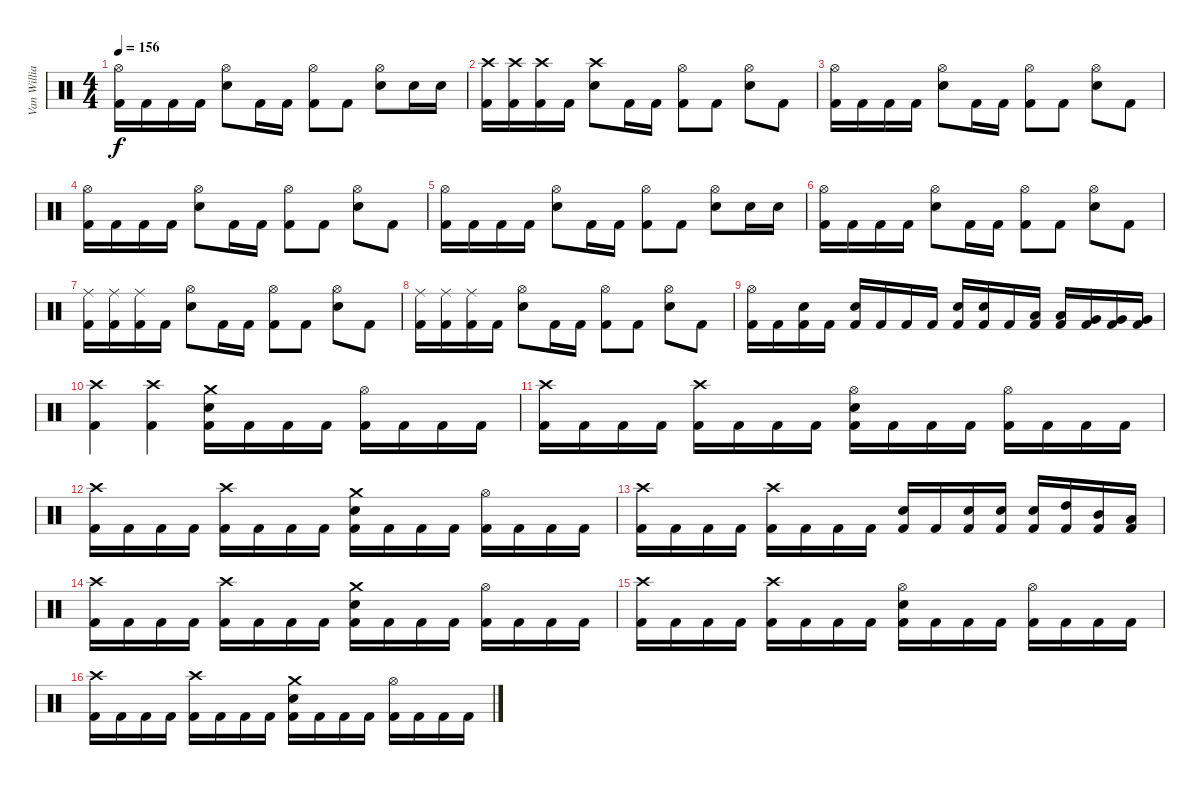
\track ("Van Williams" "Van Willia") {instrument percussion}
\staff {score}
\articulation defaults
\ts (4 4)
\tempo 156
\clef neutral
\ks c
("Hi-Hat (open)" "Kick (hit) 2").16{dy f} "Kick (hit) 2".16 "Kick (hit) 2".16 "Kick (hit) 2".16 ("Hi-Hat (open)" "Electric Snare (hit)").8 "Kick (hit) 2".16 "Kick (hit) 2".16 ("Hi-Hat (open)" "Kick (hit) 2").8 "Kick (hit) 2".8 ("Hi-Hat (open)" "Electric Snare (hit)").8 "Electric Snare (hit)".16 "Electric Snare (hit)".16 |
("Crash high (hit)" "Kick (hit) 2").16 ("Crash high (hit)" "Kick (hit) 2").16 ("Crash high (hit)" "Kick (hit) 2").16 "Kick (hit) 2".16 ("Crash high (hit)" "Electric Snare (hit)").8 "Kick (hit) 2".16 "Kick (hit) 2".16 ("Hi-Hat (open)" "Kick (hit) 2").8 "Kick (hit) 2".8 ("Hi-Hat (open)" "Electric Snare (hit)").8 "Kick (hit) 2".8 |
("Hi-Hat (open)" "Kick (hit) 2").16 "Kick (hit) 2".16 "Kick (hit) 2".16 "Kick (hit) 2".16 ("Hi-Hat (open)" "Electric Snare (hit)").8 "Kick (hit) 2".16 "Kick (hit) 2".16 ("Hi-Hat (open)" "Kick (hit) 2").8 "Kick (hit) 2".8 ("Hi-Hat (open)" "Electric Snare (hit)").8 "Kick (hit) 2".8 |
("Hi-Hat (open)" "Kick (hit) 2").16 "Kick (hit) 2".16 "Kick (hit) 2".16 "Kick (hit) 2".16 ("Hi-Hat (open)" "Electric Snare (hit)").8 "Kick (hit) 2".16 "Kick (hit) 2".16 ("Hi-Hat (open)" "Kick (hit) 2").8 "Kick (hit) 2".8 ("Hi-Hat (open)" "Electric Snare (hit)").8 "Kick (hit) 2".8 |
("Hi-Hat (open)" "Kick (hit) 2").16 "Kick (hit) 2".16 "Kick (hit) 2".16 "Kick (hit) 2".16 ("Hi-Hat (open)" "Electric Snare (hit)").8 "Kick (hit) 2".16 "Kick (hit) 2".16 ("Hi-Hat (open)" "Kick (hit) 2").8 "Kick (hit) 2".8 ("Hi-Hat (open)" "Electric Snare (hit)").8 "Electric Snare (hit)".16 "Electric Snare (hit)".16 |
("Hi-Hat (open)" "Kick (hit) 2").16 "Kick (hit) 2".16 "Kick (hit) 2".16 "Kick (hit) 2".16 ("Hi-Hat (open)" "Electric Snare (hit)").8 "Kick (hit) 2".16 "Kick (hit) 2".16 ("Hi-Hat (open)" "Kick (hit) 2").8 "Kick (hit) 2".8 ("Hi-Hat (open)" "Electric Snare (hit)").8 "Kick (hit) 2".8 |
("Ride (middle)" "Kick (hit) 2").16 ("Ride (middle)" "Kick (hit) 2").16 ("Ride (middle)" "Kick (hit) 2").16 "Kick (hit) 2".16 ("Hi-Hat (open)" "Electric Snare (hit)").8 "Kick (hit) 2".16 "Kick (hit) 2".16 ("Hi-Hat (open)" "Kick (hit) 2").8 "Kick (hit) 2".8 ("Hi-Hat (open)" "Electric Snare (hit)").8 "Kick (hit) 2".8 |
("Ride (middle)" "Kick (hit) 2").16 ("Ride (middle)" "Kick (hit) 2").16 ("Ride (middle)" "Kick (hit) 2").16 "Kick (hit) 2".16 ("Hi-Hat (open)" "Electric Snare (hit)").8 "Kick (hit) 2".16 "Kick (hit) 2".16 ("Hi-Hat (open)" "Kick (hit) 2").8 "Kick (hit) 2".8 ("Hi-Hat (open)" "Electric Snare (hit)").8 "Kick (hit) 2".8 |
("Hi-Hat (open)" "Kick (hit) 2").16 "Kick (hit) 2".16 ("Electric Snare (hit)" "Kick (hit) 2").16 "Kick (hit) 2".16 ("Electric Snare (hit)" "Kick (hit) 2").16 "Kick (hit) 2".16 "Kick (hit) 2".16 "Kick (hit) 2".16 ("Electric Snare (hit)" "Kick (hit) 2").16 ("Electric Snare (hit)" "Kick (hit) 2").16 "Kick (hit) 2".16 ("Low Tom (hit)" "Kick (hit) 2").16 ("Low Tom (hit)" "Kick (hit) 2").16 ("Very Low Tom (hit)" "Kick (hit) 2").16 ("Very Low Tom (hit)" "Kick (hit) 2").16 ("Very Low Tom (hit)" "Kick (hit) 2").16 |
\section ("" "")
("Crash high (hit)" "Kick (hit) 2").4 ("Crash high (hit)" "Kick (hit) 2").4 ("Crash medium (hit)" "Electric Snare (hit)" "Kick (hit) 2").16 "Kick (hit) 2".16 "Kick (hit) 2".16 "Kick (hit) 2".16 ("Hi-Hat (open)" "Kick (hit) 2").16 "Kick (hit) 2".16 "Kick (hit) 2".16 "Kick (hit) 2".16 |
("Crash high (hit)" "Kick (hit) 2").16 "Kick (hit) 2".16 "Kick (hit) 2".16 "Kick (hit) 2".16 ("Crash high (hit)" "Kick (hit) 2").16 "Kick (hit) 2".16 "Kick (hit) 2".16 "Kick (hit) 2".16 ("Hi-Hat (open)" "Electric Snare (hit)" "Kick (hit) 2").16 "Kick (hit) 2".16 "Kick (hit) 2".16 "Kick (hit) 2".16 ("Hi-Hat (open)" "Kick (hit) 2").16 "Kick (hit) 2".16 "Kick (hit) 2".16 "Kick (hit) 2".16 |
("Crash high (hit)" "Kick (hit) 2").16 "Kick (hit) 2".16 "Kick (hit) 2".16 "Kick (hit) 2".16 ("Crash high (hit)" "Kick (hit) 2").16 "Kick (hit) 2".16 "Kick (hit) 2".16 "Kick (hit) 2".16 ("Crash medium (hit)" "Electric Snare (hit)" "Kick (hit) 2").16 "Kick (hit) 2".16 "Kick (hit) 2".16 "Kick (hit) 2".16 ("Hi-Hat (open)" "Kick (hit) 2").16 "Kick (hit) 2".16 "Kick (hit) 2".16 "Kick (hit) 2".16 |
("Crash high (hit)" "Kick (hit) 2").16 "Kick (hit) 2".16 "Kick (hit) 2".16 "Kick (hit) 2".16 ("Crash high (hit)" "Kick (hit) 2").16 "Kick (hit) 2".16 "Kick (hit) 2".16 "Kick (hit) 2".16 ("Electric Snare (hit)" "Kick (hit) 2").16 "Kick (hit) 2".16 ("Electric Snare (hit)" "Kick (hit) 2").16 ("Electric Snare (hit)" "Kick (hit) 2").16 ("Electric Snare (hit)" "Kick (hit) 2").16 ("High Tom (hit)" "Kick (hit) 2").16 ("Mid Tom (hit)" "Kick (hit) 2").16 ("Low Tom (hit)" "Kick (hit) 2").16 |
("Crash high (hit)" "Kick (hit) 2").16 "Kick (hit) 2".16 "Kick (hit) 2".16 "Kick (hit) 2".16 ("Crash high (hit)" "Kick (hit) 2").16 "Kick (hit) 2".16 "Kick (hit) 2".16 "Kick (hit) 2".16 ("Crash medium (hit)" "Electric Snare (hit)" "Kick (hit) 2").16 "Kick (hit) 2".16 "Kick (hit) 2".16 "Kick (hit) 2".16 ("Hi-Hat (open)" "Kick (hit) 2").16 "Kick (hit) 2".16 "Kick (hit) 2".16 "Kick (hit) 2".16 |
("Crash high (hit)" "Kick (hit) 2").16 "Kick (hit) 2".16 "Kick (hit) 2".16 "Kick (hit) 2".16 ("Crash high (hit)" "Kick (hit) 2").16 "Kick (hit) 2".16 "Kick (hit) 2".16 "Kick (hit) 2".16 ("Hi-Hat (open)" "Electric Snare (hit)" "Kick (hit) 2").16 "Kick (hit) 2".16 "Kick (hit) 2".16 "Kick (hit) 2".16 ("Hi-Hat (open)" "Kick (hit) 2").16 "Kick (hit) 2".16 "Kick (hit) 2".16 "Kick (hit) 2".16 |
("Crash high (hit)" "Kick (hit) 2").16 "Kick (hit) 2".16 "Kick (hit) 2".16 "Kick (hit) 2".16 ("Crash high (hit)" "Kick (hit) 2").16 "Kick (hit) 2".16 "Kick (hit) 2".16 "Kick (hit) 2".16 ("Crash medium (hit)" "Electric Snare (hit)" "Kick (hit) 2").16 "Kick (hit) 2".16 "Kick (hit) 2".16 "Kick (hit) 2".16 ("Hi-Hat (open)" "Kick (hit) 2").16 "Kick (hit) 2".16 "Kick (hit) 2".16 "Kick (hit) 2".16
